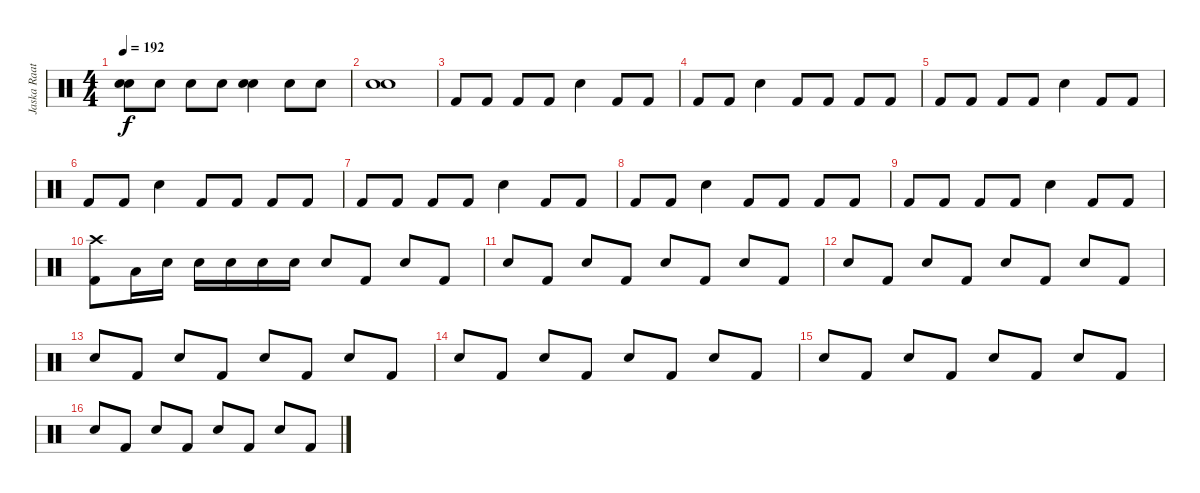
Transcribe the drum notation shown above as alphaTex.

\track ("Jaska Raatikainen " "Jaska Raat") {instrument percussion}
\staff {score}
\articulation defaults
\ts (4 4)
\tempo 192
\clef neutral
\ks c
("Snare (hit) 2" "Snare (hit) 2").8{dy f} "Snare (hit) 2".8 "Snare (hit) 2".8 "Snare (hit) 2".8 ("Snare (hit) 2" "Snare (hit) 2").4 "Snare (hit) 2".8 "Snare (hit) 2".8 |
("Snare (hit) 2" "Snare (hit) 2").1 |
"Kick (hit) 2".8 "Kick (hit) 2".8 "Kick (hit) 2".8 "Kick (hit) 2".8 "Snare (hit) 2".4 "Kick (hit) 2".8 "Kick (hit) 2".8 |
"Kick (hit) 2".8 "Kick (hit) 2".8 "Snare (hit) 2".4 "Kick (hit) 2".8 "Kick (hit) 2".8 "Kick (hit) 2".8 "Kick (hit) 2".8 |
"Kick (hit) 2".8 "Kick (hit) 2".8 "Kick (hit) 2".8 "Kick (hit) 2".8 "Snare (hit) 2".4 "Kick (hit) 2".8 "Kick (hit) 2".8 |
"Kick (hit) 2".8 "Kick (hit) 2".8 "Snare (hit) 2".4 "Kick (hit) 2".8 "Kick (hit) 2".8 "Kick (hit) 2".8 "Kick (hit) 2".8 |
"Kick (hit) 2".8 "Kick (hit) 2".8 "Kick (hit) 2".8 "Kick (hit) 2".8 "Snare (hit) 2".4 "Kick (hit) 2".8 "Kick (hit) 2".8 |
"Kick (hit) 2".8 "Kick (hit) 2".8 "Snare (hit) 2".4 "Kick (hit) 2".8 "Kick (hit) 2".8 "Kick (hit) 2".8 "Kick (hit) 2".8 |
"Kick (hit) 2".8 "Kick (hit) 2".8 "Kick (hit) 2".8 "Kick (hit) 2".8 "Snare (hit) 2".4 "Kick (hit) 2".8 "Kick (hit) 2".8 |
("Crash high (hit)" "Kick (hit) 2").8 "Low Floor Tom (hit)".16 "Snare (hit) 2".16 "Snare (hit) 2".16 "Snare (hit) 2".16 "Snare (hit) 2".16 "Snare (hit) 2".16 "Snare (hit) 2".8 "Kick (hit) 2".8 "Snare (hit) 2".8 "Kick (hit) 2".8 |
"Snare (hit) 2".8 "Kick (hit) 2".8 "Snare (hit) 2".8 "Kick (hit) 2".8 "Snare (hit) 2".8 "Kick (hit) 2".8 "Snare (hit) 2".8 "Kick (hit) 2".8 |
"Snare (hit) 2".8 "Kick (hit) 2".8 "Snare (hit) 2".8 "Kick (hit) 2".8 "Snare (hit) 2".8 "Kick (hit) 2".8 "Snare (hit) 2".8 "Kick (hit) 2".8 |
"Snare (hit) 2".8 "Kick (hit) 2".8 "Snare (hit) 2".8 "Kick (hit) 2".8 "Snare (hit) 2".8 "Kick (hit) 2".8 "Snare (hit) 2".8 "Kick (hit) 2".8 |
"Snare (hit) 2".8 "Kick (hit) 2".8 "Snare (hit) 2".8 "Kick (hit) 2".8 "Snare (hit) 2".8 "Kick (hit) 2".8 "Snare (hit) 2".8 "Kick (hit) 2".8 |
"Snare (hit) 2".8 "Kick (hit) 2".8 "Snare (hit) 2".8 "Kick (hit) 2".8 "Snare (hit) 2".8 "Kick (hit) 2".8 "Snare (hit) 2".8 "Kick (hit) 2".8 |
"Snare (hit) 2".8 "Kick (hit) 2".8 "Snare (hit) 2".8 "Kick (hit) 2".8 "Snare (hit) 2".8 "Kick (hit) 2".8 "Snare (hit) 2".8 "Kick (hit) 2".8
